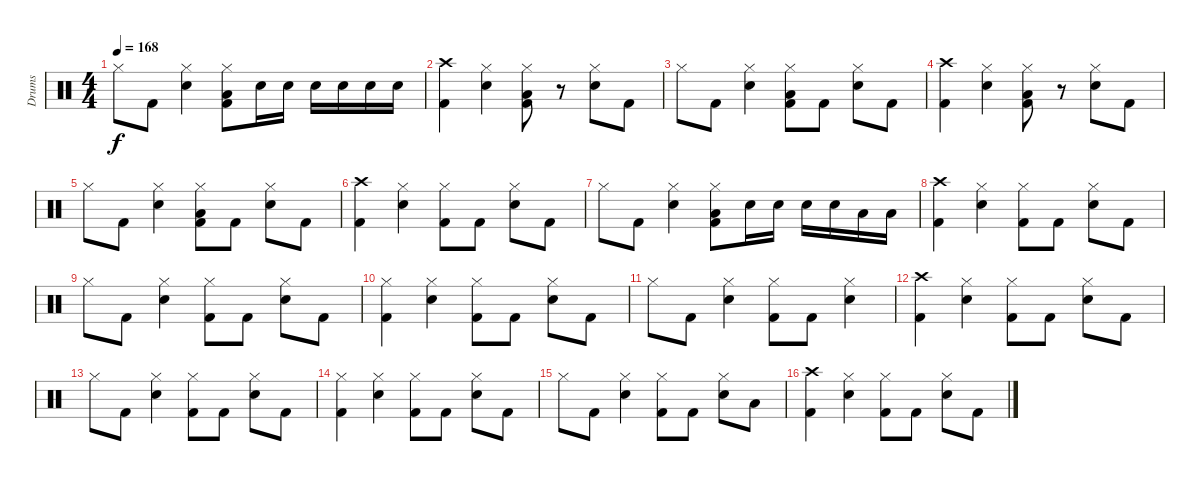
\track ("Drums" "Drums") {instrument percussion}
\staff {score}
\articulation defaults
\ts (4 4)
\tempo 168
\clef neutral
\ks c "Hi-Hat (closed)".8{dy f} "Kick (hit) 2".8
("Hi-Hat (closed)" "Electric Snare (hit)").4 ("Hi-Hat (closed)" "Low Tom (hit)" "Kick (hit) 2").8 "Electric Snare (hit)".16 "Electric Snare (hit)".16 "Electric Snare (hit)".16 "Electric Snare (hit)".16 "Electric Snare (hit)".16 "Electric Snare (hit)".16 |
("Crash high (hit)" "Kick (hit) 2").4 ("Hi-Hat (closed)" "Electric Snare (hit)").4 ("Hi-Hat (closed)" "Low Tom (hit)" "Kick (hit) 2").8 r.8 ("Hi-Hat (closed)" "Electric Snare (hit)").8 "Kick (hit) 2".8 |
"Hi-Hat (closed)".8 "Kick (hit) 2".8 ("Hi-Hat (closed)" "Electric Snare (hit)").4 ("Hi-Hat (closed)" "Low Tom (hit)" "Kick (hit) 2").8 "Kick (hit) 2".8 ("Hi-Hat (closed)" "Electric Snare (hit)").8 "Kick (hit) 2".8 |
("Crash high (hit)" "Kick (hit) 2").4 ("Hi-Hat (closed)" "Electric Snare (hit)").4 ("Hi-Hat (closed)" "Low Tom (hit)" "Kick (hit) 2").8 r.8 ("Hi-Hat (closed)" "Electric Snare (hit)").8 "Kick (hit) 2".8 |
"Hi-Hat (closed)".8 "Kick (hit) 2".8 ("Hi-Hat (closed)" "Electric Snare (hit)").4 ("Hi-Hat (closed)" "Low Tom (hit)" "Kick (hit) 2").8 "Kick (hit) 2".8 ("Hi-Hat (closed)" "Electric Snare (hit)").8 "Kick (hit) 2".8 |
("Crash high (hit)" "Kick (hit) 2").4 ("Hi-Hat (closed)" "Electric Snare (hit)").4 ("Hi-Hat (closed)" "Kick (hit) 2").8 "Kick (hit) 2".8 ("Hi-Hat (closed)" "Electric Snare (hit)").8 "Kick (hit) 2".8 |
"Hi-Hat (closed)".8 "Kick (hit) 2".8 ("Hi-Hat (closed)" "Electric Snare (hit)").4 ("Hi-Hat (closed)" "Low Tom (hit)" "Kick (hit) 2").8 "Electric Snare (hit)".16 "Electric Snare (hit)".16 "Electric Snare (hit)".16 "Electric Snare (hit)".16 "Low Tom (hit)".16 "Low Tom (hit)".16 |
("Crash high (hit)" "Kick (hit) 2").4 ("Hi-Hat (closed)" "Electric Snare (hit)").4 ("Hi-Hat (closed)" "Kick (hit) 2").8 "Kick (hit) 2".8 ("Hi-Hat (closed)" "Electric Snare (hit)").8 "Kick (hit) 2".8 |
"Hi-Hat (closed)".8 "Kick (hit) 2".8 ("Hi-Hat (closed)" "Electric Snare (hit)").4 ("Hi-Hat (closed)" "Kick (hit) 2").8 "Kick (hit) 2".8 ("Hi-Hat (closed)" "Electric Snare (hit)").8 "Kick (hit) 2".8 |
("Hi-Hat (closed)" "Kick (hit) 2").4 ("Hi-Hat (closed)" "Electric Snare (hit)").4 ("Hi-Hat (closed)" "Kick (hit) 2").8 "Kick (hit) 2".8 ("Hi-Hat (closed)" "Electric Snare (hit)").8 "Kick (hit) 2".8 |
"Hi-Hat (closed)".8 "Kick (hit) 2".8 ("Hi-Hat (closed)" "Electric Snare (hit)").4 ("Hi-Hat (closed)" "Kick (hit) 2").8 "Kick (hit) 2".8 ("Hi-Hat (closed)" "Electric Snare (hit)").4 |
("Crash high (hit)" "Kick (hit) 2").4 ("Hi-Hat (closed)" "Electric Snare (hit)").4 ("Hi-Hat (closed)" "Kick (hit) 2").8 "Kick (hit) 2".8 ("Hi-Hat (closed)" "Electric Snare (hit)").8 "Kick (hit) 2".8 |
"Hi-Hat (closed)".8 "Kick (hit) 2".8 ("Hi-Hat (closed)" "Electric Snare (hit)").4 ("Hi-Hat (closed)" "Kick (hit) 2").8 "Kick (hit) 2".8 ("Hi-Hat (closed)" "Electric Snare (hit)").8 "Kick (hit) 2".8 |
("Hi-Hat (closed)" "Kick (hit) 2").4 ("Hi-Hat (closed)" "Electric Snare (hit)").4 ("Hi-Hat (closed)" "Kick (hit) 2").8 "Kick (hit) 2".8 ("Hi-Hat (closed)" "Electric Snare (hit)").8 "Kick (hit) 2".8 |
"Hi-Hat (closed)".8 "Kick (hit) 2".8 ("Hi-Hat (closed)" "Electric Snare (hit)").4 ("Hi-Hat (closed)" "Kick (hit) 2").8 "Kick (hit) 2".8 ("Hi-Hat (closed)" "Electric Snare (hit)").8 "Low Tom (hit)".8 |
("Crash high (hit)" "Kick (hit) 2").4 ("Hi-Hat (closed)" "Electric Snare (hit)").4 ("Hi-Hat (closed)" "Kick (hit) 2").8 "Kick (hit) 2".8 ("Hi-Hat (closed)" "Electric Snare (hit)").8 "Kick (hit) 2".8
